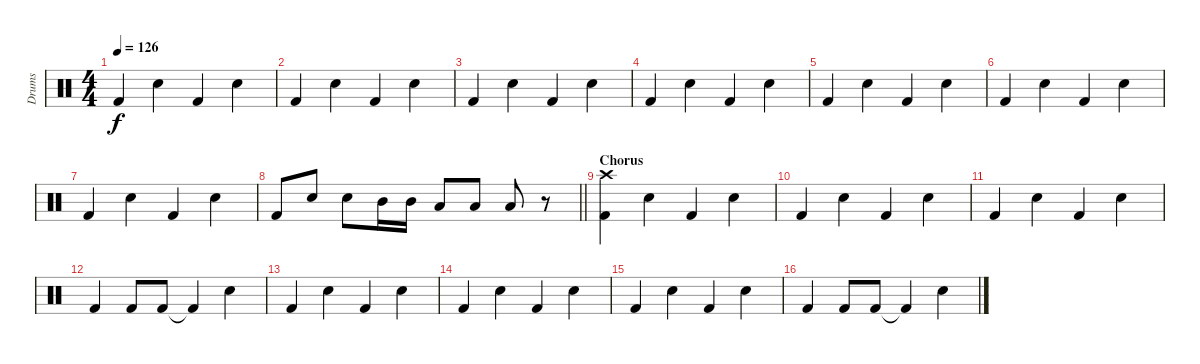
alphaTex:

\track ("Drums" "Drums") {instrument percussion}
\staff {score}
\articulation defaults
\ts (4 4)
\tempo 126
\clef neutral
\ks c "Kick (hit) 2".4{dy f} "Electric Snare (hit)".4 "Kick (hit) 2".4 "Electric Snare (hit)".4
|
"Kick (hit) 2".4 "Electric Snare (hit)".4 "Kick (hit) 2".4 "Electric Snare (hit)".4 |
"Kick (hit) 2".4 "Electric Snare (hit)".4 "Kick (hit) 2".4 "Electric Snare (hit)".4 |
"Kick (hit) 2".4 "Electric Snare (hit)".4 "Kick (hit) 2".4 "Electric Snare (hit)".4 |
"Kick (hit) 2".4 "Electric Snare (hit)".4 "Kick (hit) 2".4 "Electric Snare (hit)".4 |
"Kick (hit) 2".4 "Electric Snare (hit)".4 "Kick (hit) 2".4 "Electric Snare (hit)".4 |
"Kick (hit) 2".4 "Electric Snare (hit)".4 "Kick (hit) 2".4 "Electric Snare (hit)".4 |
\barLineRight lightlight "Kick (hit) 2".8 "Electric Snare (hit)".8 "Electric Snare (hit)".8 "Mid Tom (hit)".16 "Mid Tom (hit)".16 "Low Tom (hit)".8 "Low Tom (hit)".8 "Low Floor Tom (hit)".8
r.8 |
\section ("" "Chorus")
("Crash high (hit)" "Kick (hit) 2").4 "Electric Snare (hit)".4 "Kick (hit) 2".4 "Electric Snare (hit)".4 |
"Kick (hit) 2".4 "Electric Snare (hit)".4 "Kick (hit) 2".4 "Electric Snare (hit)".4 |
"Kick (hit) 2".4 "Electric Snare (hit)".4 "Kick (hit) 2".4 "Electric Snare (hit)".4 |
"Kick (hit) 2".4 "Kick (hit) 2".8 "Kick (hit) 2".8 "Kick (hit) 2"{t}.4 "Electric Snare (hit)".4 |
"Kick (hit) 2".4 "Electric Snare (hit)".4 "Kick (hit) 2".4 "Electric Snare (hit)".4 |
"Kick (hit) 2".4 "Electric Snare (hit)".4 "Kick (hit) 2".4 "Electric Snare (hit)".4 |
"Kick (hit) 2".4 "Electric Snare (hit)".4 "Kick (hit) 2".4 "Electric Snare (hit)".4 |
"Kick (hit) 2".4 "Kick (hit) 2".8 "Kick (hit) 2".8 "Kick (hit) 2"{t}.4 "Electric Snare (hit)".4
